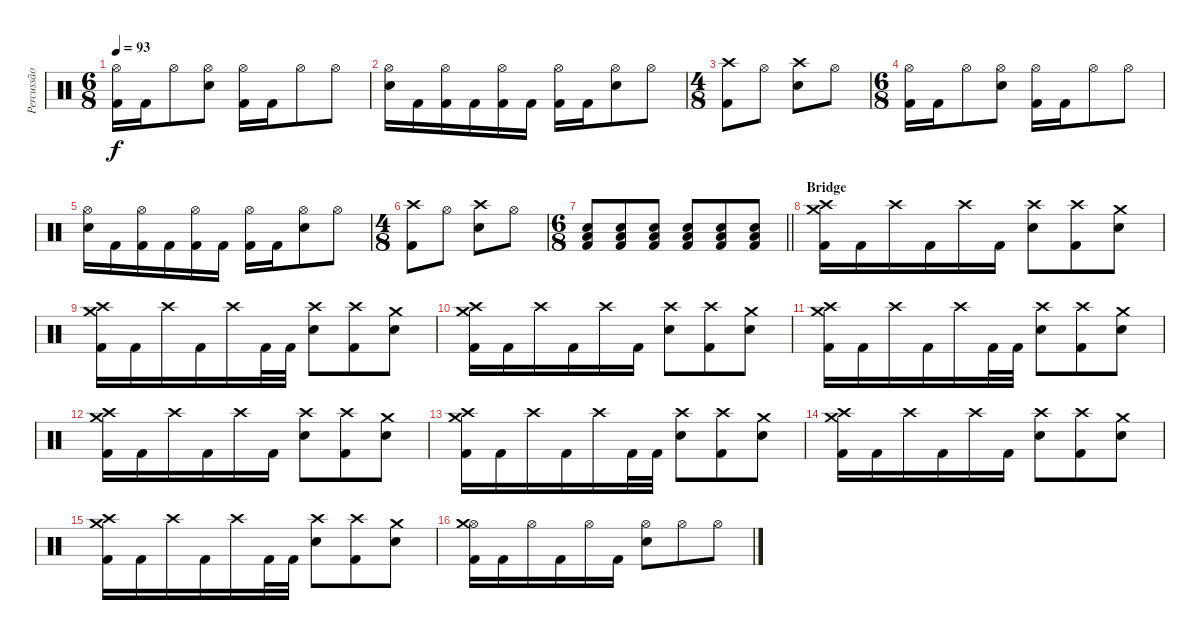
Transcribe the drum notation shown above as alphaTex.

\track ("Percussão" "Percussão") {instrument percussion}
\staff {score}
\articulation defaults
\ts (6 8)
\tempo 93
\clef neutral
\ks c
("Hi-Hat (open)" "Kick (hit) 2").16{dy f} "Kick (hit) 2".16 "Hi-Hat (open)".8 ("Hi-Hat (open)" "Snare (hit) 2").8 ("Hi-Hat (open)" "Kick (hit) 2").16 "Kick (hit) 2".16 "Hi-Hat (open)".8 "Hi-Hat (open)".8 |
("Snare (hit) 2" "Hi-Hat (open)").16 "Kick (hit) 2".16 ("Kick (hit) 2" "Hi-Hat (open)").16 "Kick (hit) 2".16 ("Hi-Hat (open)" "Kick (hit) 2").16 "Kick (hit) 2".16 ("Hi-Hat (open)" "Kick (hit) 2").16 "Kick (hit) 2".16 ("Hi-Hat (open)" "Snare (hit) 2").8 "Hi-Hat (open)".8 |
\ts (4 8)
("Kick (hit) 2" "Crash high (hit)").8 "Hi-Hat (open)".8 ("Snare (hit) 2" "Crash high (hit)").8 "Hi-Hat (open)".8 |
\ts (6 8)
("Hi-Hat (open)" "Kick (hit) 2").16 "Kick (hit) 2".16 "Hi-Hat (open)".8 ("Hi-Hat (open)" "Snare (hit) 2").8 ("Hi-Hat (open)" "Kick (hit) 2").16 "Kick (hit) 2".16 "Hi-Hat (open)".8 "Hi-Hat (open)".8 |
("Snare (hit) 2" "Hi-Hat (open)").16 "Kick (hit) 2".16 ("Kick (hit) 2" "Hi-Hat (open)").16 "Kick (hit) 2".16 ("Hi-Hat (open)" "Kick (hit) 2").16 "Kick (hit) 2".16 ("Hi-Hat (open)" "Kick (hit) 2").16 "Kick (hit) 2".16 ("Hi-Hat (open)" "Snare (hit) 2").8 "Hi-Hat (open)".8 |
\ts (4 8)
("Kick (hit) 2" "Crash high (hit)").8 "Hi-Hat (open)".8 ("Snare (hit) 2" "Crash high (hit)").8 "Hi-Hat (open)".8 |
\ts (6 8)
\barLineRight lightlight
("Kick (hit) 2" "Low Tom (hit)" "Snare (hit) 2").8 ("Kick (hit) 2" "Low Tom (hit)" "Snare (hit) 2").8 ("Kick (hit) 2" "Snare (hit) 2" "Low Tom (hit)").8 ("Kick (hit) 2" "Low Tom (hit)" "Snare (hit) 2").8 ("Kick (hit) 2" "Snare (hit) 2" "Low Tom (hit)").8 ("Kick (hit) 2" "Snare (hit) 2" "Low Tom (hit)").8 |
\section ("" "Bridge")
("Crash high (hit)" "Crash medium (hit)" "Kick (hit) 2").16 "Kick (hit) 2".16 "Crash high (hit)".16 "Kick (hit) 2".16 "Crash high (hit)".16 "Kick (hit) 2".16 ("Snare (hit) 2" "Crash high (hit)").8 ("Crash high (hit)" "Kick (hit) 2").8 ("Crash medium (hit)" "Snare (hit) 2").8 |
("Crash high (hit)" "Crash medium (hit)" "Kick (hit) 2").16 "Kick (hit) 2".16 "Crash high (hit)".16 "Kick (hit) 2".16 "Crash high (hit)".16 "Kick (hit) 2".32 "Kick (hit) 2".32 ("Snare (hit) 2" "Crash high (hit)").8 ("Crash high (hit)" "Kick (hit) 2").8 ("Crash medium (hit)" "Snare (hit) 2").8 |
("Crash high (hit)" "Crash medium (hit)" "Kick (hit) 2").16 "Kick (hit) 2".16 "Crash high (hit)".16 "Kick (hit) 2".16 "Crash high (hit)".16 "Kick (hit) 2".16 ("Snare (hit) 2" "Crash high (hit)").8 ("Crash high (hit)" "Kick (hit) 2").8 ("Crash medium (hit)" "Snare (hit) 2").8 |
("Crash high (hit)" "Crash medium (hit)" "Kick (hit) 2").16 "Kick (hit) 2".16 "Crash high (hit)".16 "Kick (hit) 2".16 "Crash high (hit)".16 "Kick (hit) 2".32 "Kick (hit) 2".32 ("Snare (hit) 2" "Crash high (hit)").8 ("Crash high (hit)" "Kick (hit) 2").8 ("Crash medium (hit)" "Snare (hit) 2").8 |
("Crash high (hit)" "Crash medium (hit)" "Kick (hit) 2").16 "Kick (hit) 2".16 "Crash high (hit)".16 "Kick (hit) 2".16 "Crash high (hit)".16 "Kick (hit) 2".16 ("Snare (hit) 2" "Crash high (hit)").8 ("Crash high (hit)" "Kick (hit) 2").8 ("Crash medium (hit)" "Snare (hit) 2").8 |
("Crash high (hit)" "Crash medium (hit)" "Kick (hit) 2").16 "Kick (hit) 2".16 "Crash high (hit)".16 "Kick (hit) 2".16 "Crash high (hit)".16 "Kick (hit) 2".32 "Kick (hit) 2".32 ("Snare (hit) 2" "Crash high (hit)").8 ("Crash high (hit)" "Kick (hit) 2").8 ("Crash medium (hit)" "Snare (hit) 2").8 |
("Crash high (hit)" "Crash medium (hit)" "Kick (hit) 2").16 "Kick (hit) 2".16 "Crash high (hit)".16 "Kick (hit) 2".16 "Crash high (hit)".16 "Kick (hit) 2".16 ("Snare (hit) 2" "Crash high (hit)").8 ("Crash high (hit)" "Kick (hit) 2").8 ("Crash medium (hit)" "Snare (hit) 2").8 |
("Crash high (hit)" "Crash medium (hit)" "Kick (hit) 2").16 "Kick (hit) 2".16 "Crash high (hit)".16 "Kick (hit) 2".16 "Crash high (hit)".16 "Kick (hit) 2".32 "Kick (hit) 2".32 ("Snare (hit) 2" "Crash high (hit)").8 ("Crash high (hit)" "Kick (hit) 2").8 ("Crash medium (hit)" "Snare (hit) 2").8 |
("Hi-Hat (open)" "Crash medium (hit)" "Kick (hit) 2").16 "Kick (hit) 2".16 "Hi-Hat (open)".16 "Kick (hit) 2".16 "Hi-Hat (open)".16 "Kick (hit) 2".16 ("Hi-Hat (open)" "Snare (hit) 2").8 "Hi-Hat (open)".8 "Hi-Hat (open)".8
